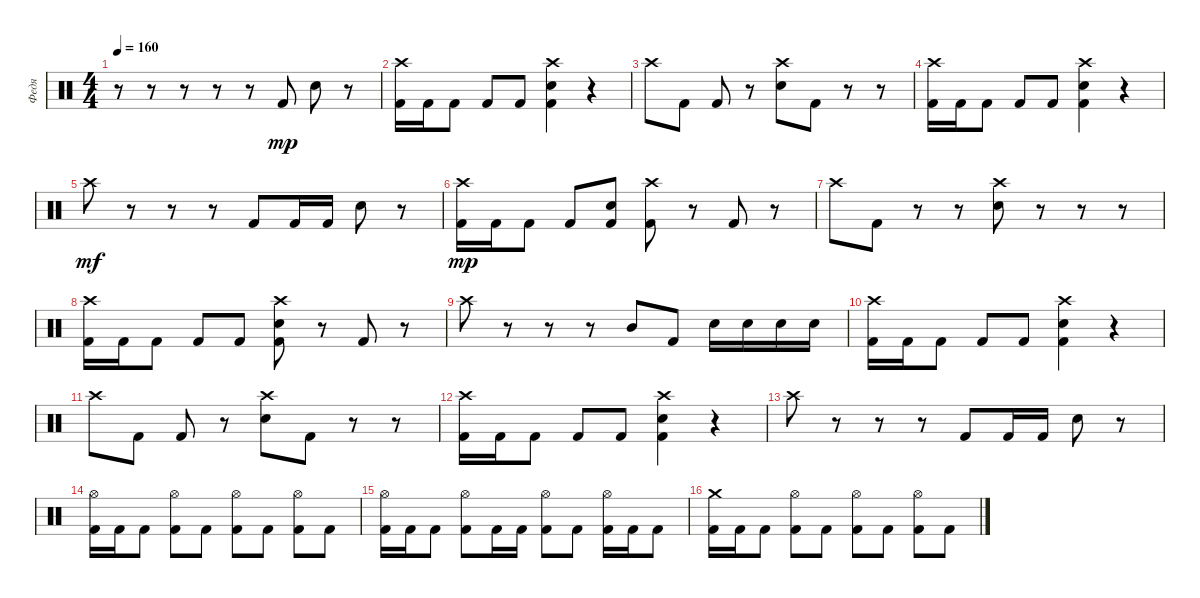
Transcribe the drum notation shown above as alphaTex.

\track ("Федя" "Федя") {instrument percussion}
\staff {score}
\articulation defaults
\ts (4 4)
\tempo 160
\clef neutral
\ks c
r.8{dy mp} r.8 r.8 r.8 r.8 "Kick (hit) 2".8 "Electric Snare (hit)".8 r.8 |
("Crash high (hit)" "Kick (hit) 2").16 "Kick (hit) 2".16 "Kick (hit) 2".8 "Kick (hit) 2".8 "Kick (hit) 2".8 ("Crash high (hit)" "Electric Snare (hit)" "Kick (hit) 2").4 r.4 |
"Crash high (hit)".8 "Kick (hit) 2".8 "Kick (hit) 2".8 r.8 ("Crash high (hit)" "Electric Snare (hit)").8 "Kick (hit) 2".8 r.8 r.8 |
("Crash high (hit)" "Kick (hit) 2").16 "Kick (hit) 2".16 "Kick (hit) 2".8 "Kick (hit) 2".8 "Kick (hit) 2".8 ("Crash high (hit)" "Electric Snare (hit)" "Kick (hit) 2").4 r.4 |
"Crash high (hit)".8{dy mf} r.8 r.8 r.8 "Kick (hit) 2".8 "Kick (hit) 2".16 "Kick (hit) 2".16 "Electric Snare (hit)".8 r.8 |
("Crash high (hit)" "Kick (hit) 2").16{dy mp} "Kick (hit) 2".16 "Kick (hit) 2".8 "Kick (hit) 2".8 ("Electric Snare (hit)" "Kick (hit) 2").8 ("Crash high (hit)" "Kick (hit) 2").8 r.8 "Kick (hit) 2".8 r.8 |
"Crash high (hit)".8 "Kick (hit) 2".8 r.8 r.8 ("Crash high (hit)" "Electric Snare (hit)").8 r.8 r.8 r.8 |
("Crash high (hit)" "Kick (hit) 2").16 "Kick (hit) 2".16 "Kick (hit) 2".8 "Kick (hit) 2".8 "Kick (hit) 2".8 ("Crash high (hit)" "Electric Snare (hit)" "Kick (hit) 2").8 r.8 "Kick (hit) 2".8 r.8 |
"Crash high (hit)".8 r.8 r.8 r.8 "Mid Tom (hit)".8 "Kick (hit) 2".8 "Electric Snare (hit)".16 "Electric Snare (hit)".16 "Electric Snare (hit)".16 "Electric Snare (hit)".16 |
("Crash high (hit)" "Kick (hit) 2").16 "Kick (hit) 2".16 "Kick (hit) 2".8 "Kick (hit) 2".8 "Kick (hit) 2".8 ("Crash high (hit)" "Electric Snare (hit)" "Kick (hit) 2").4 r.4 |
"Crash high (hit)".8 "Kick (hit) 2".8 "Kick (hit) 2".8 r.8 ("Crash high (hit)" "Electric Snare (hit)").8 "Kick (hit) 2".8 r.8 r.8 |
("Crash high (hit)" "Kick (hit) 2").16 "Kick (hit) 2".16 "Kick (hit) 2".8 "Kick (hit) 2".8 "Kick (hit) 2".8 ("Crash high (hit)" "Electric Snare (hit)" "Kick (hit) 2").4 r.4 |
"Crash high (hit)".8 r.8 r.8 r.8 "Kick (hit) 2".8 "Kick (hit) 2".16 "Kick (hit) 2".16 "Electric Snare (hit)".8 r.8 |
("Hi-Hat (open)" "Kick (hit) 2").16 "Kick (hit) 2".16 "Kick (hit) 2".8 ("Hi-Hat (open)" "Kick (hit) 2").8 "Kick (hit) 2".8 ("Hi-Hat (open)" "Kick (hit) 2").8 "Kick (hit) 2".8 ("Hi-Hat (open)" "Kick (hit) 2").8 "Kick (hit) 2".8 |
("Hi-Hat (open)" "Kick (hit) 2").16 "Kick (hit) 2".16 "Kick (hit) 2".8 ("Hi-Hat (open)" "Kick (hit) 2").8 "Kick (hit) 2".16 "Kick (hit) 2".16 ("Hi-Hat (open)" "Kick (hit) 2").8 "Kick (hit) 2".8 ("Hi-Hat (open)" "Kick (hit) 2").16 "Kick (hit) 2".16 "Kick (hit) 2".8 |
("Crash medium (hit)" "Kick (hit) 2").16 "Kick (hit) 2".16 "Kick (hit) 2".8 ("Hi-Hat (open)" "Kick (hit) 2").8 "Kick (hit) 2".8 ("Hi-Hat (open)" "Kick (hit) 2").8 "Kick (hit) 2".8 ("Hi-Hat (open)" "Kick (hit) 2").8 "Kick (hit) 2".8
